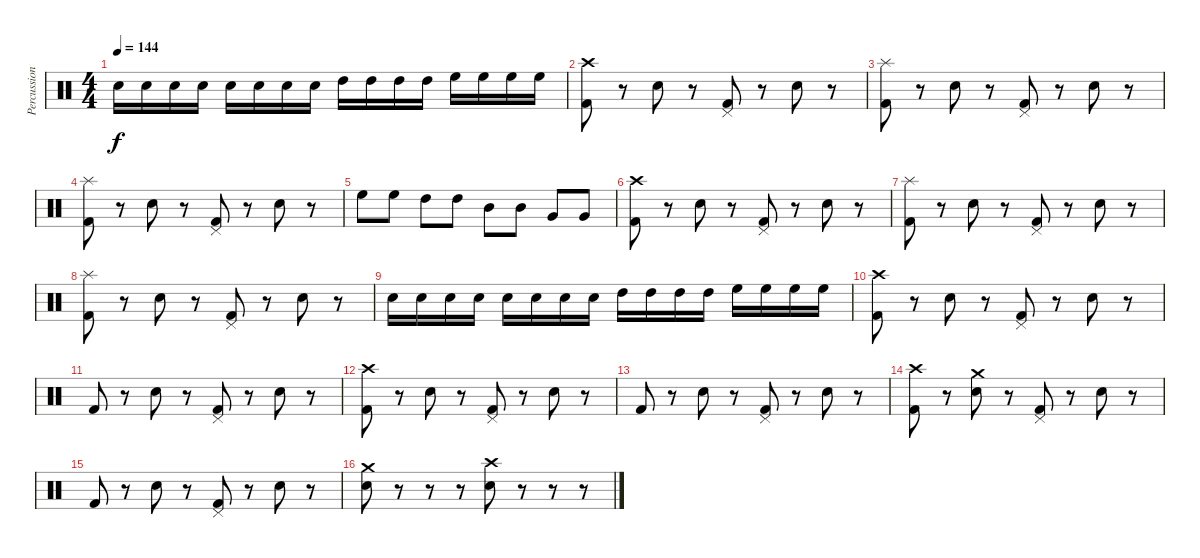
\track ("Percussion" "Percussion") {instrument percussion}
\staff {score}
\articulation defaults
\ts (4 4)
\tempo 144
\clef neutral
\ks c "Electric Snare (hit)".16{dy f} "Electric Snare (hit)".16 "Electric Snare (hit)".16 "Electric Snare (hit)".16 "Snare (hit) 2".16 "Snare (hit) 2".16 "Snare (hit) 2".16 "Snare (hit) 2".16 "High Tom (hit)".16 "High Tom (hit)".16 "High Tom (hit)".16 "High Tom (hit)".16 "High Floor Tom (hit)".16 "High Floor Tom (hit)".16 "High Floor Tom (hit)".16 "High Floor Tom (hit)".16
|
("Crash high (hit)" "Kick (hit) 2").8 r.8 "Snare (hit) 2".8 r.8 ("Pedal Hi-Hat (hit)" "Kick (hit) 2").8 r.8 "Snare (hit) 2".8 r.8 |
("Kick (hit) 2" "Splash (hit)").8 r.8 "Snare (hit) 2".8 r.8 ("Pedal Hi-Hat (hit)" "Kick (hit) 2").8 r.8 "Snare (hit) 2".8 r.8 |
("Kick (hit) 2" "Splash (hit)").8 r.8 "Snare (hit) 2".8 r.8 ("Pedal Hi-Hat (hit)" "Kick (hit) 2").8 r.8 "Snare (hit) 2".8 r.8 |
"High Floor Tom (hit)".8 "High Floor Tom (hit)".8 "High Tom (hit)".8 "High Tom (hit)".8 "Mid Tom (hit)".8 "Mid Tom (hit)".8 "Very Low Tom (hit)".8 "Very Low Tom (hit)".8 |
("Crash high (hit)" "Kick (hit) 2").8 r.8 "Snare (hit) 2".8 r.8 ("Pedal Hi-Hat (hit)" "Kick (hit) 2").8 r.8 "Snare (hit) 2".8 r.8 |
("Kick (hit) 2" "Splash (hit)").8 r.8 "Snare (hit) 2".8 r.8 ("Pedal Hi-Hat (hit)" "Kick (hit) 2").8 r.8 "Snare (hit) 2".8 r.8 |
("Kick (hit) 2" "Splash (hit)").8 r.8 "Snare (hit) 2".8 r.8 ("Pedal Hi-Hat (hit)" "Kick (hit) 2").8 r.8 "Snare (hit) 2".8 r.8 |
"Electric Snare (hit)".16 "Electric Snare (hit)".16 "Electric Snare (hit)".16 "Electric Snare (hit)".16 "Snare (hit) 2".16 "Snare (hit) 2".16 "Snare (hit) 2".16 "Snare (hit) 2".16 "High Tom (hit)".16 "High Tom (hit)".16 "High Tom (hit)".16 "High Tom (hit)".16 "High Floor Tom (hit)".16 "High Floor Tom (hit)".16 "High Floor Tom (hit)".16 "High Floor Tom (hit)".16 |
("Kick (hit) 2" "Crash high (hit)").8 r.8 "Snare (hit) 2".8 r.8 ("Pedal Hi-Hat (hit)" "Kick (hit) 2").8 r.8 "Snare (hit) 2".8 r.8 |
"Kick (hit) 2".8 r.8 "Snare (hit) 2".8 r.8 ("Pedal Hi-Hat (hit)" "Kick (hit) 2").8 r.8 "Snare (hit) 2".8 r.8 |
("Kick (hit) 2" "Crash high (hit)").8 r.8 "Snare (hit) 2".8 r.8 ("Pedal Hi-Hat (hit)" "Kick (hit) 2").8 r.8 "Snare (hit) 2".8 r.8 |
"Kick (hit) 2".8 r.8 "Snare (hit) 2".8 r.8 ("Pedal Hi-Hat (hit)" "Kick (hit) 2").8 r.8 "Snare (hit) 2".8 r.8 |
("Kick (hit) 2" "Crash high (hit)").8 r.8 ("Snare (hit) 2" "Crash medium (hit)").8 r.8 ("Pedal Hi-Hat (hit)" "Kick (hit) 2").8 r.8 "Snare (hit) 2".8 r.8 |
"Kick (hit) 2".8 r.8 "Snare (hit) 2".8 r.8 ("Pedal Hi-Hat (hit)" "Kick (hit) 2").8 r.8 "Snare (hit) 2".8 r.8 |
("Snare (hit) 2" "Crash medium (hit)").8 r.8 r.8 r.8 ("Snare (hit) 2" "Crash high (hit)").8 r.8 r.8 r.8
